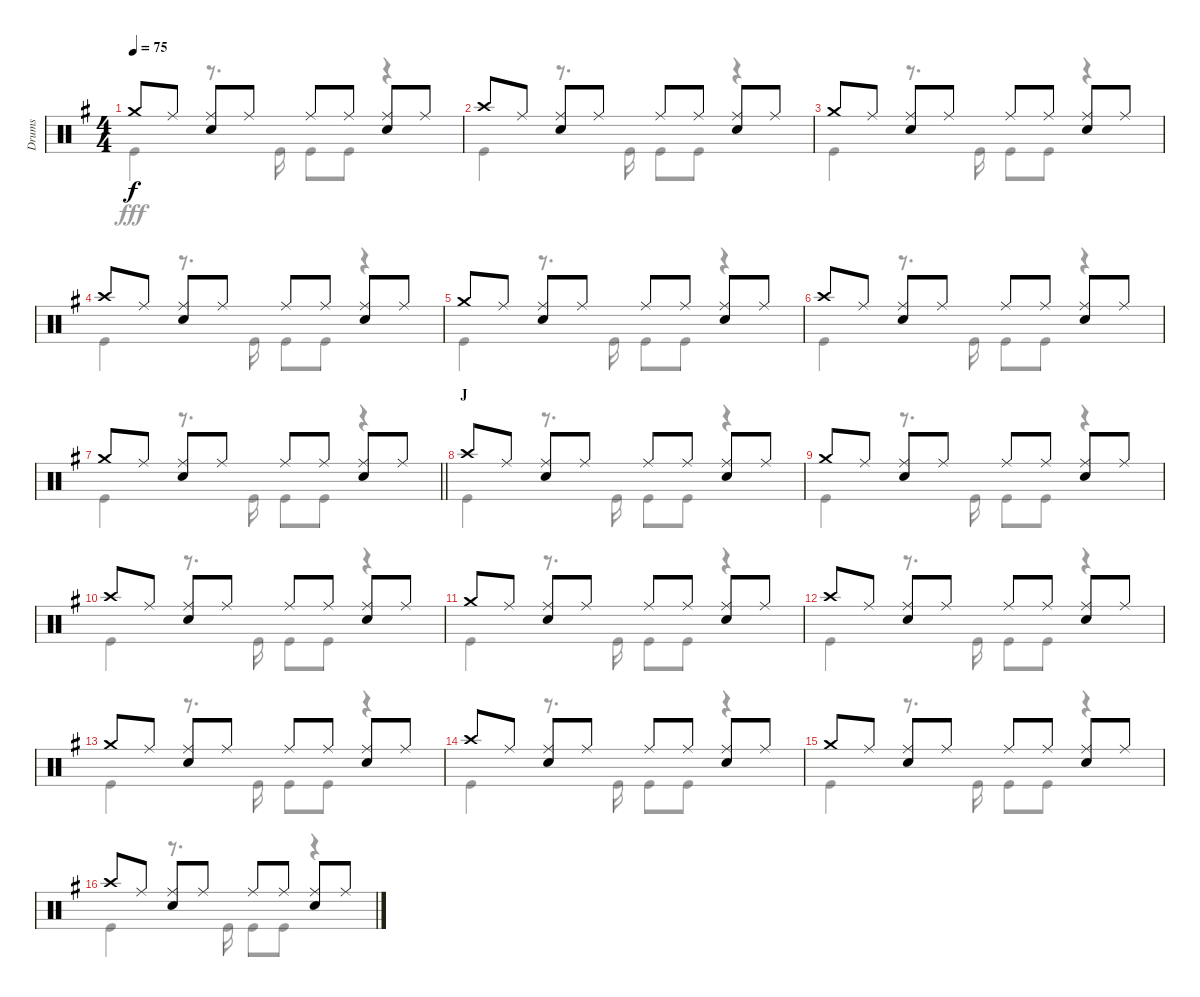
\track ("Drums" "Drums") {instrument percussion}
\staff {score}
\articulation defaults
\voice
\ts (4 4)
\tempo 75
\clef neutral
\ks g "Crash medium (hit)".8{dy f} "Ride (middle)".8
("Ride (middle)" "Snare (hit) 2").8 "Ride (middle)".8 "Ride (middle)".8 "Ride (middle)".8 ("Ride (middle)" "Snare (hit) 2").8 "Ride (middle)".8 |
"Crash high (hit)".8 "Ride (middle)".8 ("Ride (middle)" "Snare (hit) 2").8 "Ride (middle)".8 "Ride (middle)".8 "Ride (middle)".8 ("Ride (middle)" "Snare (hit) 2").8 "Ride (middle)".8 |
"Crash medium (hit)".8 "Ride (middle)".8 ("Ride (middle)" "Snare (hit) 2").8 "Ride (middle)".8 "Ride (middle)".8 "Ride (middle)".8 ("Ride (middle)" "Snare (hit) 2").8 "Ride (middle)".8 |
"Crash high (hit)".8 "Ride (middle)".8 ("Ride (middle)" "Snare (hit) 2").8 "Ride (middle)".8 "Ride (middle)".8 "Ride (middle)".8 ("Ride (middle)" "Snare (hit) 2").8 "Ride (middle)".8 |
"Crash medium (hit)".8 "Ride (middle)".8 ("Ride (middle)" "Snare (hit) 2").8 "Ride (middle)".8 "Ride (middle)".8 "Ride (middle)".8 ("Ride (middle)" "Snare (hit) 2").8 "Ride (middle)".8 |
"Crash high (hit)".8 "Ride (middle)".8 ("Ride (middle)" "Snare (hit) 2").8 "Ride (middle)".8 "Ride (middle)".8 "Ride (middle)".8 ("Ride (middle)" "Snare (hit) 2").8 "Ride (middle)".8 |
\barLineRight lightlight "Crash medium (hit)".8 "Ride (middle)".8
("Ride (middle)" "Snare (hit) 2").8 "Ride (middle)".8 "Ride (middle)".8 "Ride (middle)".8 ("Ride (middle)" "Snare (hit) 2").8 "Ride (middle)".8 |
\section ("" "J")
"Crash high (hit)".8 "Ride (middle)".8 ("Ride (middle)" "Snare (hit) 2").8 "Ride (middle)".8 "Ride (middle)".8 "Ride (middle)".8 ("Ride (middle)" "Snare (hit) 2").8 "Ride (middle)".8 |
"Crash medium (hit)".8 "Ride (middle)".8 ("Ride (middle)" "Snare (hit) 2").8 "Ride (middle)".8 "Ride (middle)".8 "Ride (middle)".8 ("Ride (middle)" "Snare (hit) 2").8 "Ride (middle)".8 |
"Crash high (hit)".8 "Ride (middle)".8 ("Ride (middle)" "Snare (hit) 2").8 "Ride (middle)".8 "Ride (middle)".8 "Ride (middle)".8 ("Ride (middle)" "Snare (hit) 2").8 "Ride (middle)".8 |
"Crash medium (hit)".8 "Ride (middle)".8 ("Ride (middle)" "Snare (hit) 2").8 "Ride (middle)".8 "Ride (middle)".8 "Ride (middle)".8 ("Ride (middle)" "Snare (hit) 2").8 "Ride (middle)".8 |
"Crash high (hit)".8 "Ride (middle)".8 ("Ride (middle)" "Snare (hit) 2").8 "Ride (middle)".8 "Ride (middle)".8 "Ride (middle)".8 ("Ride (middle)" "Snare (hit) 2").8 "Ride (middle)".8 |
"Crash medium (hit)".8 "Ride (middle)".8 ("Ride (middle)" "Snare (hit) 2").8 "Ride (middle)".8 "Ride (middle)".8 "Ride (middle)".8 ("Ride (middle)" "Snare (hit) 2").8 "Ride (middle)".8 |
"Crash high (hit)".8 "Ride (middle)".8 ("Ride (middle)" "Snare (hit) 2").8 "Ride (middle)".8 "Ride (middle)".8 "Ride (middle)".8 ("Ride (middle)" "Snare (hit) 2").8 "Ride (middle)".8 |
"Crash medium (hit)".8 "Ride (middle)".8 ("Ride (middle)" "Snare (hit) 2").8 "Ride (middle)".8 "Ride (middle)".8 "Ride (middle)".8 ("Ride (middle)" "Snare (hit) 2").8 "Ride (middle)".8 |
"Crash high (hit)".8 "Ride (middle)".8 ("Ride (middle)" "Snare (hit) 2").8 "Ride (middle)".8 "Ride (middle)".8 "Ride (middle)".8 ("Ride (middle)" "Snare (hit) 2").8 "Ride (middle)".8
\voice
\clef neutral
\ottava regular
\simile none
\ks g "Kick (hit)".4{dy fff}
r.8{d} "Kick (hit)".16 "Kick (hit)".8 "Kick (hit)".8 r.4 |
"Kick (hit)".4 r.8{d} "Kick (hit)".16 "Kick (hit)".8 "Kick (hit)".8 r.4 |
"Kick (hit)".4 r.8{d} "Kick (hit)".16 "Kick (hit)".8 "Kick (hit)".8 r.4 |
"Kick (hit)".4 r.8{d} "Kick (hit)".16 "Kick (hit)".8 "Kick (hit)".8 r.4 |
"Kick (hit)".4 r.8{d} "Kick (hit)".16 "Kick (hit)".8 "Kick (hit)".8 r.4 |
"Kick (hit)".4 r.8{d} "Kick (hit)".16 "Kick (hit)".8 "Kick (hit)".8 r.4 |
\barLineRight lightlight "Kick (hit)".4
r.8{d} "Kick (hit)".16 "Kick (hit)".8 "Kick (hit)".8 r.4 |
"Kick (hit)".4 r.8{d} "Kick (hit)".16 "Kick (hit)".8 "Kick (hit)".8 r.4 |
"Kick (hit)".4 r.8{d} "Kick (hit)".16 "Kick (hit)".8 "Kick (hit)".8 r.4 |
"Kick (hit)".4 r.8{d} "Kick (hit)".16 "Kick (hit)".8 "Kick (hit)".8 r.4 |
"Kick (hit)".4 r.8{d} "Kick (hit)".16 "Kick (hit)".8 "Kick (hit)".8 r.4 |
"Kick (hit)".4 r.8{d} "Kick (hit)".16 "Kick (hit)".8 "Kick (hit)".8 r.4 |
"Kick (hit)".4 r.8{d} "Kick (hit)".16 "Kick (hit)".8 "Kick (hit)".8 r.4 |
"Kick (hit)".4 r.8{d} "Kick (hit)".16 "Kick (hit)".8 "Kick (hit)".8 r.4 |
"Kick (hit)".4 r.8{d} "Kick (hit)".16 "Kick (hit)".8 "Kick (hit)".8 r.4 |
"Kick (hit)".4 r.8{d} "Kick (hit)".16 "Kick (hit)".8 "Kick (hit)".8 r.4
